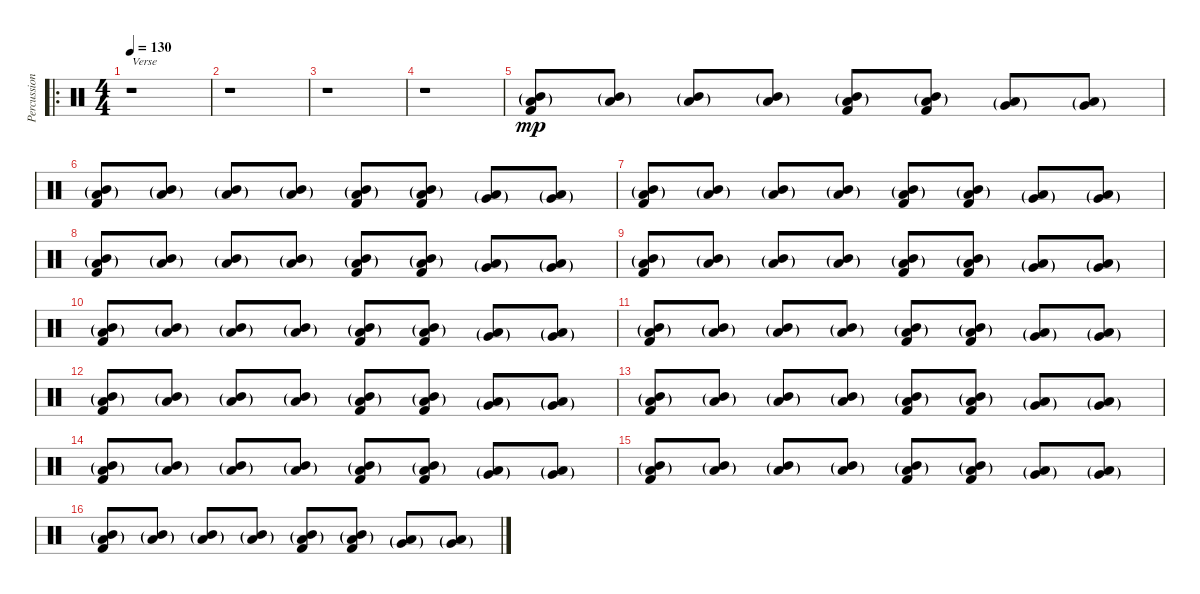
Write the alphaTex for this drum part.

\track ("Percussion" "Percussion") {instrument percussion}
\staff {score}
\articulation defaults
\ro
\ts (4 4)
\tempo 130
\clef neutral
\ks c
r.1{txt "Verse" dy f} |
r.1 |
r.1 |
r.1 |
("Mid Tom (hit)"{g} "Low Tom (hit)"{g} "Kick (hit) 2").8{dy mp} ("Mid Tom (hit)"{g} "Low Tom (hit)"{g}).8 ("Mid Tom (hit)"{g} "Low Tom (hit)"{g}).8 ("Mid Tom (hit)"{g} "Low Tom (hit)"{g}).8 ("Mid Tom (hit)"{g} "Low Tom (hit)"{g} "Kick (hit) 2").8 ("Mid Tom (hit)"{g} "Low Tom (hit)"{g} "Kick (hit) 2").8 ("Very Low Tom (hit)"{g} "Low Tom (hit)"{g}).8 ("Very Low Tom (hit)"{g} "Low Tom (hit)"{g}).8 |
("Mid Tom (hit)"{g} "Low Tom (hit)"{g} "Kick (hit) 2").8 ("Mid Tom (hit)"{g} "Low Tom (hit)"{g}).8 ("Mid Tom (hit)"{g} "Low Tom (hit)"{g}).8 ("Mid Tom (hit)"{g} "Low Tom (hit)"{g}).8 ("Mid Tom (hit)"{g} "Low Tom (hit)"{g} "Kick (hit) 2").8 ("Mid Tom (hit)"{g} "Low Tom (hit)"{g} "Kick (hit) 2").8 ("Very Low Tom (hit)"{g} "Low Tom (hit)"{g}).8 ("Very Low Tom (hit)"{g} "Low Tom (hit)"{g}).8 |
("Mid Tom (hit)"{g} "Low Tom (hit)"{g} "Kick (hit) 2").8 ("Mid Tom (hit)"{g} "Low Tom (hit)"{g}).8 ("Mid Tom (hit)"{g} "Low Tom (hit)"{g}).8 ("Mid Tom (hit)"{g} "Low Tom (hit)"{g}).8 ("Mid Tom (hit)"{g} "Low Tom (hit)"{g} "Kick (hit) 2").8 ("Mid Tom (hit)"{g} "Low Tom (hit)"{g} "Kick (hit) 2").8 ("Very Low Tom (hit)"{g} "Low Tom (hit)"{g}).8 ("Very Low Tom (hit)"{g} "Low Tom (hit)"{g}).8 |
("Mid Tom (hit)"{g} "Low Tom (hit)"{g} "Kick (hit) 2").8 ("Mid Tom (hit)"{g} "Low Tom (hit)"{g}).8 ("Mid Tom (hit)"{g} "Low Tom (hit)"{g}).8 ("Mid Tom (hit)"{g} "Low Tom (hit)"{g}).8 ("Mid Tom (hit)"{g} "Low Tom (hit)"{g} "Kick (hit) 2").8 ("Mid Tom (hit)"{g} "Low Tom (hit)"{g} "Kick (hit) 2").8 ("Very Low Tom (hit)"{g} "Low Tom (hit)"{g}).8 ("Very Low Tom (hit)"{g} "Low Tom (hit)"{g}).8 |
("Mid Tom (hit)"{g} "Low Tom (hit)"{g} "Kick (hit) 2").8 ("Mid Tom (hit)"{g} "Low Tom (hit)"{g}).8 ("Mid Tom (hit)"{g} "Low Tom (hit)"{g}).8 ("Mid Tom (hit)"{g} "Low Tom (hit)"{g}).8 ("Mid Tom (hit)"{g} "Low Tom (hit)"{g} "Kick (hit) 2").8 ("Mid Tom (hit)"{g} "Low Tom (hit)"{g} "Kick (hit) 2").8 ("Very Low Tom (hit)"{g} "Low Tom (hit)"{g}).8 ("Very Low Tom (hit)"{g} "Low Tom (hit)"{g}).8 |
("Mid Tom (hit)"{g} "Low Tom (hit)"{g} "Kick (hit) 2").8 ("Mid Tom (hit)"{g} "Low Tom (hit)"{g}).8 ("Mid Tom (hit)"{g} "Low Tom (hit)"{g}).8 ("Mid Tom (hit)"{g} "Low Tom (hit)"{g}).8 ("Mid Tom (hit)"{g} "Low Tom (hit)"{g} "Kick (hit) 2").8 ("Mid Tom (hit)"{g} "Low Tom (hit)"{g} "Kick (hit) 2").8 ("Very Low Tom (hit)"{g} "Low Tom (hit)"{g}).8 ("Very Low Tom (hit)"{g} "Low Tom (hit)"{g}).8 |
("Mid Tom (hit)"{g} "Low Tom (hit)"{g} "Kick (hit) 2").8 ("Mid Tom (hit)"{g} "Low Tom (hit)"{g}).8 ("Mid Tom (hit)"{g} "Low Tom (hit)"{g}).8 ("Mid Tom (hit)"{g} "Low Tom (hit)"{g}).8 ("Mid Tom (hit)"{g} "Low Tom (hit)"{g} "Kick (hit) 2").8 ("Mid Tom (hit)"{g} "Low Tom (hit)"{g} "Kick (hit) 2").8 ("Very Low Tom (hit)"{g} "Low Tom (hit)"{g}).8 ("Very Low Tom (hit)"{g} "Low Tom (hit)"{g}).8 |
("Mid Tom (hit)"{g} "Low Tom (hit)"{g} "Kick (hit) 2").8 ("Mid Tom (hit)"{g} "Low Tom (hit)"{g}).8 ("Mid Tom (hit)"{g} "Low Tom (hit)"{g}).8 ("Mid Tom (hit)"{g} "Low Tom (hit)"{g}).8 ("Mid Tom (hit)"{g} "Low Tom (hit)"{g} "Kick (hit) 2").8 ("Mid Tom (hit)"{g} "Low Tom (hit)"{g} "Kick (hit) 2").8 ("Very Low Tom (hit)"{g} "Low Tom (hit)"{g}).8 ("Very Low Tom (hit)"{g} "Low Tom (hit)"{g}).8 |
("Mid Tom (hit)"{g} "Low Tom (hit)"{g} "Kick (hit) 2").8 ("Mid Tom (hit)"{g} "Low Tom (hit)"{g}).8 ("Mid Tom (hit)"{g} "Low Tom (hit)"{g}).8 ("Mid Tom (hit)"{g} "Low Tom (hit)"{g}).8 ("Mid Tom (hit)"{g} "Low Tom (hit)"{g} "Kick (hit) 2").8 ("Mid Tom (hit)"{g} "Low Tom (hit)"{g} "Kick (hit) 2").8 ("Very Low Tom (hit)"{g} "Low Tom (hit)"{g}).8 ("Very Low Tom (hit)"{g} "Low Tom (hit)"{g}).8 |
("Mid Tom (hit)"{g} "Low Tom (hit)"{g} "Kick (hit) 2").8 ("Mid Tom (hit)"{g} "Low Tom (hit)"{g}).8 ("Mid Tom (hit)"{g} "Low Tom (hit)"{g}).8 ("Mid Tom (hit)"{g} "Low Tom (hit)"{g}).8 ("Mid Tom (hit)"{g} "Low Tom (hit)"{g} "Kick (hit) 2").8 ("Mid Tom (hit)"{g} "Low Tom (hit)"{g} "Kick (hit) 2").8 ("Very Low Tom (hit)"{g} "Low Tom (hit)"{g}).8 ("Very Low Tom (hit)"{g} "Low Tom (hit)"{g}).8 |
("Mid Tom (hit)"{g} "Low Tom (hit)"{g} "Kick (hit) 2").8 ("Mid Tom (hit)"{g} "Low Tom (hit)"{g}).8 ("Mid Tom (hit)"{g} "Low Tom (hit)"{g}).8 ("Mid Tom (hit)"{g} "Low Tom (hit)"{g}).8 ("Mid Tom (hit)"{g} "Low Tom (hit)"{g} "Kick (hit) 2").8 ("Mid Tom (hit)"{g} "Low Tom (hit)"{g} "Kick (hit) 2").8 ("Very Low Tom (hit)"{g} "Low Tom (hit)"{g}).8 ("Very Low Tom (hit)"{g} "Low Tom (hit)"{g}).8 |
("Mid Tom (hit)"{g} "Low Tom (hit)"{g} "Kick (hit) 2").8 ("Mid Tom (hit)"{g} "Low Tom (hit)"{g}).8 ("Mid Tom (hit)"{g} "Low Tom (hit)"{g}).8 ("Mid Tom (hit)"{g} "Low Tom (hit)"{g}).8 ("Mid Tom (hit)"{g} "Low Tom (hit)"{g} "Kick (hit) 2").8 ("Mid Tom (hit)"{g} "Low Tom (hit)"{g} "Kick (hit) 2").8 ("Very Low Tom (hit)"{g} "Low Tom (hit)"{g}).8 ("Very Low Tom (hit)"{g} "Low Tom (hit)"{g}).8
